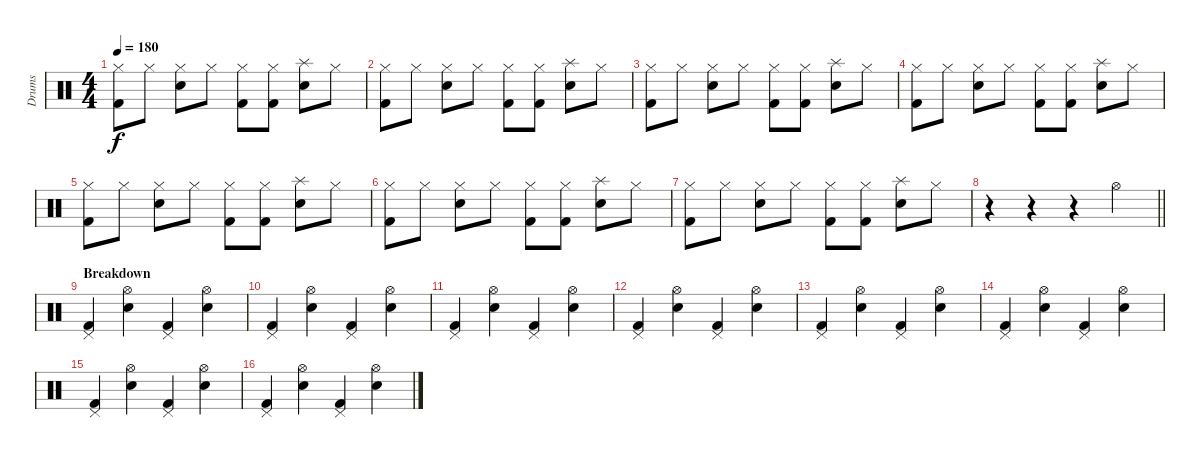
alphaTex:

\track ("Drums" "Drums") {instrument percussion}
\staff {score}
\articulation defaults
\ts (4 4)
\tempo 180
\clef neutral
\ks c
("Hi-Hat (closed)" "Kick (hit) 2").8{dy f} "Hi-Hat (closed)".8 ("Hi-Hat (closed)" "Snare (hit) 2").8 "Hi-Hat (closed)".8 ("Hi-Hat (closed)" "Kick (hit) 2").8 ("Hi-Hat (closed)" "Kick (hit) 2").8 ("Splash (hit)" "Snare (hit) 2").8 "Hi-Hat (closed)".8 |
("Hi-Hat (closed)" "Kick (hit) 2").8 "Hi-Hat (closed)".8 ("Hi-Hat (closed)" "Snare (hit) 2").8 "Hi-Hat (closed)".8 ("Hi-Hat (closed)" "Kick (hit) 2").8 ("Hi-Hat (closed)" "Kick (hit) 2").8 ("Splash (hit)" "Snare (hit) 2").8 "Hi-Hat (closed)".8 |
("Hi-Hat (closed)" "Kick (hit) 2").8 "Hi-Hat (closed)".8 ("Hi-Hat (closed)" "Snare (hit) 2").8 "Hi-Hat (closed)".8 ("Hi-Hat (closed)" "Kick (hit) 2").8 ("Hi-Hat (closed)" "Kick (hit) 2").8 ("Splash (hit)" "Snare (hit) 2").8 "Hi-Hat (closed)".8 |
("Hi-Hat (closed)" "Kick (hit) 2").8 "Hi-Hat (closed)".8 ("Hi-Hat (closed)" "Snare (hit) 2").8 "Hi-Hat (closed)".8 ("Hi-Hat (closed)" "Kick (hit) 2").8 ("Hi-Hat (closed)" "Kick (hit) 2").8 ("Splash (hit)" "Snare (hit) 2").8 "Hi-Hat (closed)".8 |
("Hi-Hat (closed)" "Kick (hit) 2").8 "Hi-Hat (closed)".8 ("Hi-Hat (closed)" "Snare (hit) 2").8 "Hi-Hat (closed)".8 ("Hi-Hat (closed)" "Kick (hit) 2").8 ("Hi-Hat (closed)" "Kick (hit) 2").8 ("Splash (hit)" "Snare (hit) 2").8 "Hi-Hat (closed)".8 |
("Hi-Hat (closed)" "Kick (hit) 2").8 "Hi-Hat (closed)".8 ("Hi-Hat (closed)" "Snare (hit) 2").8 "Hi-Hat (closed)".8 ("Hi-Hat (closed)" "Kick (hit) 2").8 ("Hi-Hat (closed)" "Kick (hit) 2").8 ("Splash (hit)" "Snare (hit) 2").8 "Hi-Hat (closed)".8 |
("Hi-Hat (closed)" "Kick (hit) 2").8 "Hi-Hat (closed)".8 ("Hi-Hat (closed)" "Snare (hit) 2").8 "Hi-Hat (closed)".8 ("Hi-Hat (closed)" "Kick (hit) 2").8 ("Hi-Hat (closed)" "Kick (hit) 2").8 ("Splash (hit)" "Snare (hit) 2").8 "Hi-Hat (closed)".8 |
\barLineRight lightlight
r.4 r.4 r.4 "Hi-Hat (open)".4 |
\section ("" "Breakdown")
("Pedal Hi-Hat (hit)" "Kick (hit) 2").4 ("Hi-Hat (open)" "Snare (hit) 2").4 ("Pedal Hi-Hat (hit)" "Kick (hit) 2").4 ("Hi-Hat (open)" "Snare (hit) 2").4 |
("Pedal Hi-Hat (hit)" "Kick (hit) 2").4 ("Hi-Hat (open)" "Snare (hit) 2").4 ("Pedal Hi-Hat (hit)" "Kick (hit) 2").4 ("Hi-Hat (open)" "Snare (hit) 2").4 |
("Pedal Hi-Hat (hit)" "Kick (hit) 2").4 ("Hi-Hat (open)" "Snare (hit) 2").4 ("Pedal Hi-Hat (hit)" "Kick (hit) 2").4 ("Hi-Hat (open)" "Snare (hit) 2").4 |
("Pedal Hi-Hat (hit)" "Kick (hit) 2").4 ("Hi-Hat (open)" "Snare (hit) 2").4 ("Pedal Hi-Hat (hit)" "Kick (hit) 2").4 ("Hi-Hat (open)" "Snare (hit) 2").4 |
("Pedal Hi-Hat (hit)" "Kick (hit) 2").4 ("Hi-Hat (open)" "Snare (hit) 2").4 ("Pedal Hi-Hat (hit)" "Kick (hit) 2").4 ("Hi-Hat (open)" "Snare (hit) 2").4 |
("Pedal Hi-Hat (hit)" "Kick (hit) 2").4 ("Hi-Hat (open)" "Snare (hit) 2").4 ("Pedal Hi-Hat (hit)" "Kick (hit) 2").4 ("Hi-Hat (open)" "Snare (hit) 2").4 |
("Pedal Hi-Hat (hit)" "Kick (hit) 2").4 ("Hi-Hat (open)" "Snare (hit) 2").4 ("Pedal Hi-Hat (hit)" "Kick (hit) 2").4 ("Hi-Hat (open)" "Snare (hit) 2").4 |
("Pedal Hi-Hat (hit)" "Kick (hit) 2").4 ("Hi-Hat (open)" "Snare (hit) 2").4 ("Pedal Hi-Hat (hit)" "Kick (hit) 2").4 ("Hi-Hat (open)" "Snare (hit) 2").4
